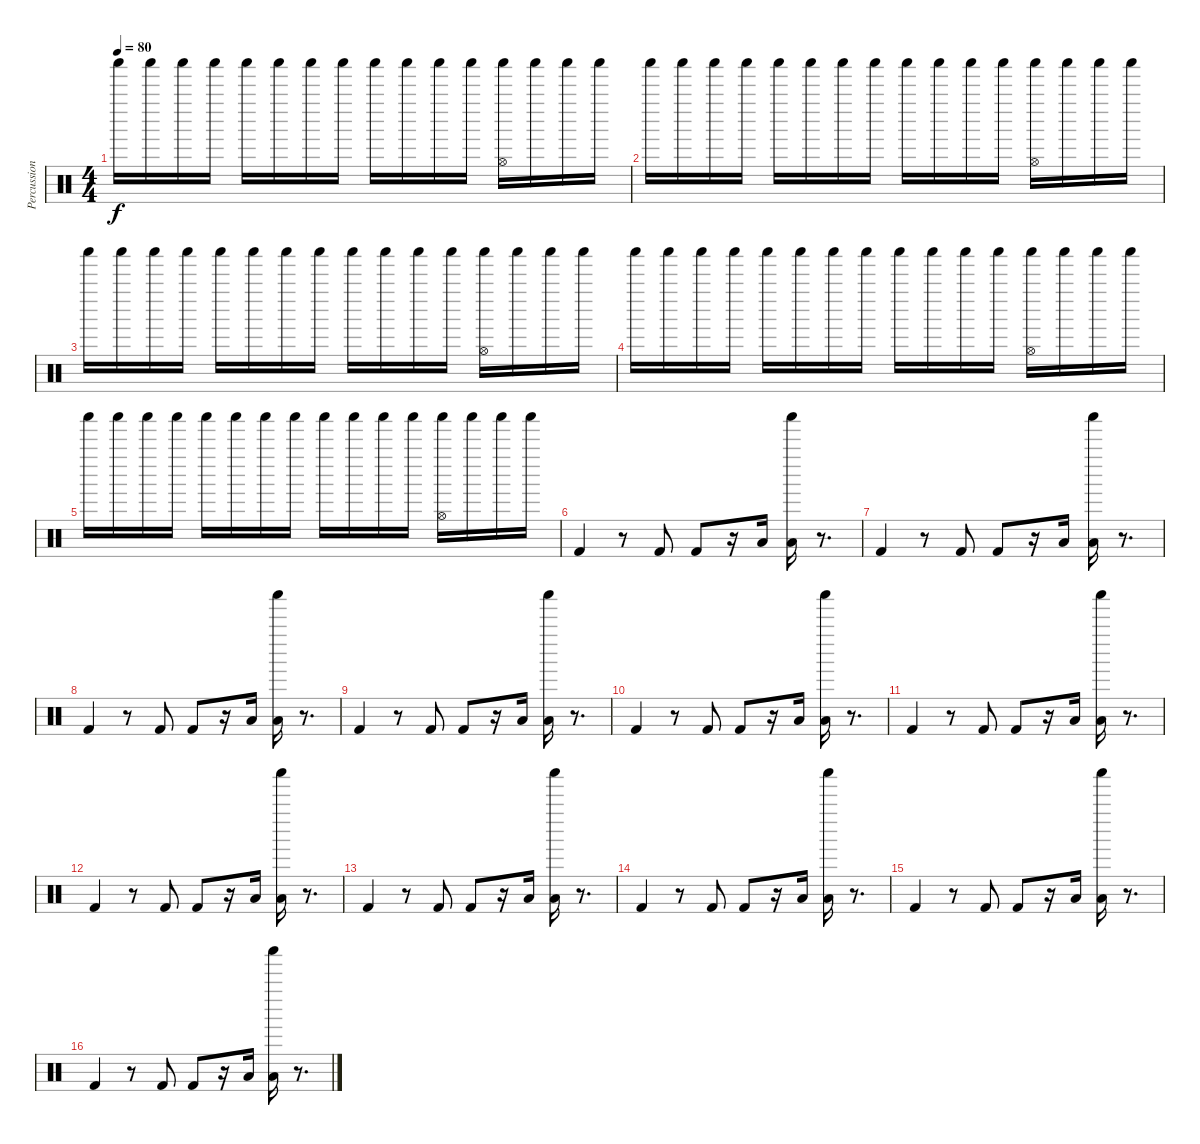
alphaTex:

\track ("Percussion" "Percussion") {instrument percussion bank 10}
\staff {score}
\articulation defaults
\ts (4 4)
\tempo 80
\clef neutral
\ks c "Shaker (hit)".16{dy f} "Shaker (hit)".16 "Shaker (hit)".16 "Shaker (hit)".16 "Shaker (hit)".16 "Shaker (hit)".16 "Shaker (hit)".16 "Shaker (hit)".16 "Shaker (hit)".16 "Shaker (hit)".16 "Shaker (hit)".16 "Shaker (hit)".16
("Hi-Hat (open)" "Shaker (hit)").16 "Shaker (hit)".16 "Shaker (hit)".16 "Shaker (hit)".16 |
"Shaker (hit)".16 "Shaker (hit)".16 "Shaker (hit)".16 "Shaker (hit)".16 "Shaker (hit)".16 "Shaker (hit)".16 "Shaker (hit)".16 "Shaker (hit)".16 "Shaker (hit)".16 "Shaker (hit)".16 "Shaker (hit)".16 "Shaker (hit)".16 ("Hi-Hat (open)" "Shaker (hit)").16 "Shaker (hit)".16 "Shaker (hit)".16 "Shaker (hit)".16 |
"Shaker (hit)".16 "Shaker (hit)".16 "Shaker (hit)".16 "Shaker (hit)".16 "Shaker (hit)".16 "Shaker (hit)".16 "Shaker (hit)".16 "Shaker (hit)".16 "Shaker (hit)".16 "Shaker (hit)".16 "Shaker (hit)".16 "Shaker (hit)".16 ("Hi-Hat (open)" "Shaker (hit)").16 "Shaker (hit)".16 "Shaker (hit)".16 "Shaker (hit)".16 |
"Shaker (hit)".16 "Shaker (hit)".16 "Shaker (hit)".16 "Shaker (hit)".16 "Shaker (hit)".16 "Shaker (hit)".16 "Shaker (hit)".16 "Shaker (hit)".16 "Shaker (hit)".16 "Shaker (hit)".16 "Shaker (hit)".16 "Shaker (hit)".16 ("Hi-Hat (open)" "Shaker (hit)").16 "Shaker (hit)".16 "Shaker (hit)".16 "Shaker (hit)".16 |
"Shaker (hit)".16 "Shaker (hit)".16 "Shaker (hit)".16 "Shaker (hit)".16 "Shaker (hit)".16 "Shaker (hit)".16 "Shaker (hit)".16 "Shaker (hit)".16 "Shaker (hit)".16 "Shaker (hit)".16 "Shaker (hit)".16 "Shaker (hit)".16 ("Hi-Hat (open)" "Shaker (hit)").16 "Shaker (hit)".16 "Shaker (hit)".16 "Shaker (hit)".16 |
"Kick (hit) 2".4 r.8 "Kick (hit) 2".8 "Kick (hit) 2".8 r.16 "Low Floor Tom (hit)".16 ("Shaker (hit)" "Low Floor Tom (hit)").16 r.8{d} |
"Kick (hit) 2".4 r.8 "Kick (hit) 2".8 "Kick (hit) 2".8 r.16 "Low Floor Tom (hit)".16 ("Shaker (hit)" "Low Floor Tom (hit)").16 r.8{d} |
"Kick (hit) 2".4 r.8 "Kick (hit) 2".8 "Kick (hit) 2".8 r.16 "Low Floor Tom (hit)".16 ("Shaker (hit)" "Low Floor Tom (hit)").16 r.8{d} |
"Kick (hit) 2".4 r.8 "Kick (hit) 2".8 "Kick (hit) 2".8 r.16 "Low Floor Tom (hit)".16 ("Shaker (hit)" "Low Floor Tom (hit)").16 r.8{d} |
"Kick (hit) 2".4 r.8 "Kick (hit) 2".8 "Kick (hit) 2".8 r.16 "Low Floor Tom (hit)".16 ("Shaker (hit)" "Low Floor Tom (hit)").16 r.8{d} |
"Kick (hit) 2".4 r.8 "Kick (hit) 2".8 "Kick (hit) 2".8 r.16 "Low Floor Tom (hit)".16 ("Shaker (hit)" "Low Floor Tom (hit)").16 r.8{d} |
"Kick (hit) 2".4 r.8 "Kick (hit) 2".8 "Kick (hit) 2".8 r.16 "Low Floor Tom (hit)".16 ("Shaker (hit)" "Low Floor Tom (hit)").16 r.8{d} |
"Kick (hit) 2".4 r.8 "Kick (hit) 2".8 "Kick (hit) 2".8 r.16 "Low Floor Tom (hit)".16 ("Shaker (hit)" "Low Floor Tom (hit)").16 r.8{d} |
"Kick (hit) 2".4 r.8 "Kick (hit) 2".8 "Kick (hit) 2".8 r.16 "Low Floor Tom (hit)".16 ("Shaker (hit)" "Low Floor Tom (hit)").16 r.8{d} |
"Kick (hit) 2".4 r.8 "Kick (hit) 2".8 "Kick (hit) 2".8 r.16 "Low Floor Tom (hit)".16 ("Shaker (hit)" "Low Floor Tom (hit)").16 r.8{d} |
"Kick (hit) 2".4 r.8 "Kick (hit) 2".8 "Kick (hit) 2".8 r.16 "Low Floor Tom (hit)".16 ("Shaker (hit)" "Low Floor Tom (hit)").16 r.8{d}
